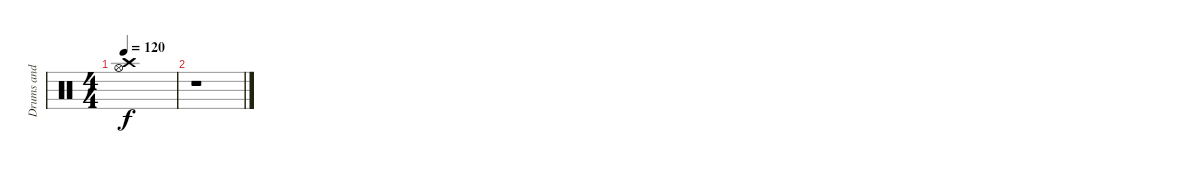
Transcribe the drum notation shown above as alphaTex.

\track ("Drums and Percussion" "Drums and ") {instrument percussion}
\staff {score}
\articulation defaults
\ts (4 4)
\tempo 120
\clef neutral
\ks c
("Crash high (hit)" "Hi-Hat (open)").1{dy f} |
r.1
